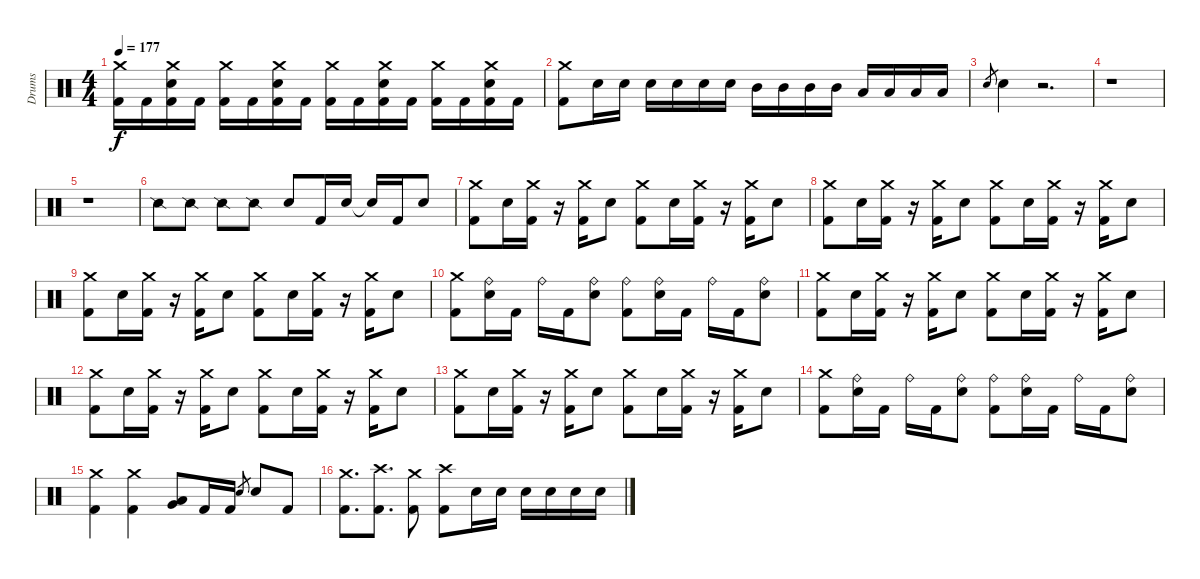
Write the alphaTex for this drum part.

\track ("Drums" "Drums") {instrument percussion}
\staff {score}
\articulation defaults
\ts (4 4)
\tempo 177
\clef neutral
\ks c
("Crash medium (hit)" "Kick (hit) 2").16{dy f} "Kick (hit) 2".16 ("Crash medium (hit)" "Snare (hit) 2" "Kick (hit) 2").16 "Kick (hit) 2".16 ("Crash medium (hit)" "Kick (hit) 2").16 "Kick (hit) 2".16 ("Crash medium (hit)" "Snare (hit) 2" "Kick (hit) 2").16 "Kick (hit) 2".16 ("Crash medium (hit)" "Kick (hit) 2").16 "Kick (hit) 2".16 ("Crash medium (hit)" "Snare (hit) 2" "Kick (hit) 2").16 "Kick (hit) 2".16 ("Crash medium (hit)" "Kick (hit) 2").16 "Kick (hit) 2".16 ("Crash medium (hit)" "Snare (hit) 2" "Kick (hit) 2").16 "Kick (hit) 2".16 |
("Crash medium (hit)" "Kick (hit) 2").8 "Snare (hit) 2".16 "Snare (hit) 2".16 "Snare (hit) 2".16 "Snare (hit) 2".16 "Snare (hit) 2".16 "Snare (hit) 2".16 "Mid Tom (hit)".16 "Mid Tom (hit)".16 "Mid Tom (hit)".16 "Mid Tom (hit)".16 "Low Tom (hit)".16 "Low Tom (hit)".16 "Low Tom (hit)".16 "Low Tom (hit)".16 |
"Snare (hit) 2".8{gr} "Snare (hit) 2".4 r.2{d} |
r.1 |
r.1 |
"Snare (side stick) 2".8 "Snare (side stick) 2".8 "Snare (side stick) 2".8 "Snare (side stick) 2".8 "Snare (hit) 2".8 "Kick (hit) 2".16 "Snare (hit) 2".16 "Snare (hit) 2"{t}.16 "Kick (hit) 2".16 "Snare (hit) 2".8 |
("Crash medium (hit)" "Kick (hit) 2").8 "Snare (hit) 2".16 ("Crash medium (hit)" "Kick (hit) 2").16 r.16 ("Crash medium (hit)" "Kick (hit) 2").16 "Snare (hit) 2".8 ("Crash medium (hit)" "Kick (hit) 2").8 "Snare (hit) 2".16 ("Crash medium (hit)" "Kick (hit) 2").16 r.16 ("Crash medium (hit)" "Kick (hit) 2").16 "Snare (hit) 2".8 |
("Crash medium (hit)" "Kick (hit) 2").8 "Snare (hit) 2".16 ("Crash medium (hit)" "Kick (hit) 2").16 r.16 ("Crash medium (hit)" "Kick (hit) 2").16 "Snare (hit) 2".8 ("Crash medium (hit)" "Kick (hit) 2").8 "Snare (hit) 2".16 ("Crash medium (hit)" "Kick (hit) 2").16 r.16 ("Crash medium (hit)" "Kick (hit) 2").16 "Snare (hit) 2".8 |
("Crash medium (hit)" "Kick (hit) 2").8 "Snare (hit) 2".16 ("Crash medium (hit)" "Kick (hit) 2").16 r.16 ("Crash medium (hit)" "Kick (hit) 2").16 "Snare (hit) 2".8 ("Crash medium (hit)" "Kick (hit) 2").8 "Snare (hit) 2".16 ("Crash medium (hit)" "Kick (hit) 2").16 r.16 ("Crash medium (hit)" "Kick (hit) 2").16 "Snare (hit) 2".8 |
("Crash medium (hit)" "Kick (hit) 2").8 ("Ride (bell)" "Snare (hit) 2").16 "Kick (hit) 2".16 "Ride (bell)".16 "Kick (hit) 2".16 ("Ride (bell)" "Snare (hit) 2").8 ("Ride (bell)" "Kick (hit) 2").8 ("Ride (bell)" "Snare (hit) 2").16 "Kick (hit) 2".16 "Ride (bell)".16 "Kick (hit) 2".16 ("Ride (bell)" "Snare (hit) 2").8 |
("Crash medium (hit)" "Kick (hit) 2").8 "Snare (hit) 2".16 ("Crash medium (hit)" "Kick (hit) 2").16 r.16 ("Crash medium (hit)" "Kick (hit) 2").16 "Snare (hit) 2".8 ("Crash medium (hit)" "Kick (hit) 2").8 "Snare (hit) 2".16 ("Crash medium (hit)" "Kick (hit) 2").16 r.16 ("Crash medium (hit)" "Kick (hit) 2").16 "Snare (hit) 2".8 |
("Crash medium (hit)" "Kick (hit) 2").8 "Snare (hit) 2".16 ("Crash medium (hit)" "Kick (hit) 2").16 r.16 ("Crash medium (hit)" "Kick (hit) 2").16 "Snare (hit) 2".8 ("Crash medium (hit)" "Kick (hit) 2").8 "Snare (hit) 2".16 ("Crash medium (hit)" "Kick (hit) 2").16 r.16 ("Crash medium (hit)" "Kick (hit) 2").16 "Snare (hit) 2".8 |
("Crash medium (hit)" "Kick (hit) 2").8 "Snare (hit) 2".16 ("Crash medium (hit)" "Kick (hit) 2").16 r.16 ("Crash medium (hit)" "Kick (hit) 2").16 "Snare (hit) 2".8 ("Crash medium (hit)" "Kick (hit) 2").8 "Snare (hit) 2".16 ("Crash medium (hit)" "Kick (hit) 2").16 r.16 ("Crash medium (hit)" "Kick (hit) 2").16 "Snare (hit) 2".8 |
("Crash medium (hit)" "Kick (hit) 2").8 ("Ride (bell)" "Snare (hit) 2").16 "Kick (hit) 2".16 "Ride (bell)".16 "Kick (hit) 2".16 ("Ride (bell)" "Snare (hit) 2").8 ("Ride (bell)" "Kick (hit) 2").8 ("Ride (bell)" "Snare (hit) 2").16 "Kick (hit) 2".16 "Ride (bell)".16 "Kick (hit) 2".16 ("Ride (bell)" "Snare (hit) 2").8 |
("Crash medium (hit)" "Kick (hit) 2").4 ("Crash medium (hit)" "Kick (hit) 2").4 ("Very Low Tom (hit)" "Low Floor Tom (hit)").8 "Kick (hit) 2".16 "Kick (hit) 2".16 "Snare (hit) 2".8{gr} "Snare (hit) 2".8 "Kick (hit) 2".8 |
("Crash medium (hit)" "Kick (hit) 2").8{d} ("Crash high (hit)" "Kick (hit) 2").8{d} ("Crash medium (hit)" "Kick (hit) 2").8 ("Crash high (hit)" "Kick (hit) 2").8 "Snare (hit) 2".16 "Snare (hit) 2".16 "Snare (hit) 2".16 "Snare (hit) 2".16 "Snare (hit) 2".16 "Snare (hit) 2".16
